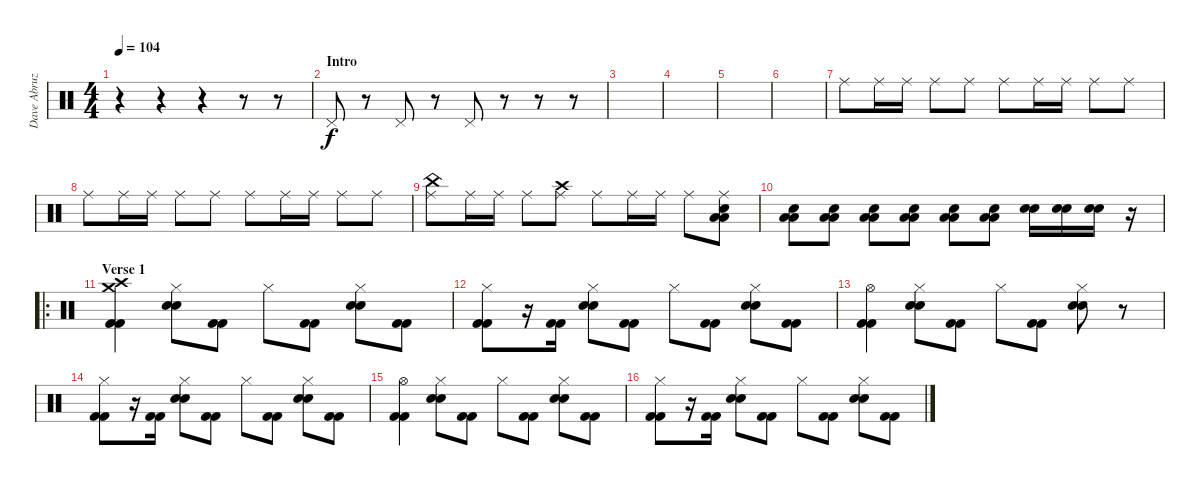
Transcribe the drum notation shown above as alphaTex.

\track ("Dave Abruzzese" "Dave Abruz") {instrument percussion}
\staff {score}
\articulation defaults
\ts (4 4)
\tempo 104
\clef neutral
\ks c
r.4{dy f} r.4 r.4 r.8 r.8 |
\section ("" "Intro")
"Pedal Hi-Hat (hit)".8 r.8 "Pedal Hi-Hat (hit)".8 r.8 "Pedal Hi-Hat (hit)".8 r.8 r.8 r.8 |
|
|
|
|
\section ("" "")
"Ride (middle)".8 "Ride (middle)".16 "Ride (middle)".16 "Ride (middle)".8 "Ride (middle)".8 "Ride (middle)".8 "Ride (middle)".16 "Ride (middle)".16 "Ride (middle)".8 "Ride (middle)".8 |
"Ride (middle)".8 "Ride (middle)".16 "Ride (middle)".16 "Ride (middle)".8 "Ride (middle)".8 "Ride (middle)".8 "Ride (middle)".16 "Ride (middle)".16 "Ride (middle)".8 "Ride (middle)".8 |
("China (hit)" "Ride (middle)").8 "Ride (middle)".16 "Ride (middle)".16 "Ride (middle)".8 ("Crash high (hit)" "Ride (middle)").8 "Ride (middle)".8 "Ride (middle)".16 "Ride (middle)".16 "Ride (middle)".8 ("Low Tom (hit)" "Low Tom (hit)" "Electric Snare (hit)" "Ride (middle)").8 |
("Low Tom (hit)" "Low Tom (hit)" "Electric Snare (hit)").8 ("Low Tom (hit)" "Low Tom (hit)" "Electric Snare (hit)").8 ("Low Tom (hit)" "Low Tom (hit)" "Electric Snare (hit)").8 ("Low Tom (hit)" "Low Tom (hit)" "Electric Snare (hit)").8 ("Low Tom (hit)" "Low Tom (hit)" "Electric Snare (hit)").8 ("Low Tom (hit)" "Low Tom (hit)" "Electric Snare (hit)").8 ("Electric Snare (hit)" "Electric Snare (hit)").16 ("Electric Snare (hit)" "Electric Snare (hit)").16 ("Electric Snare (hit)" "Electric Snare (hit)").16 r.16 |
\ro
\section ("" "Verse 1")
("Crash medium (hit)" "Kick (hit) 2" "Kick (hit) 2" "Crash high (hit)").4 ("Electric Snare (hit)" "Electric Snare (hit)" "Hi-Hat (closed)").8 ("Kick (hit) 2" "Kick (hit) 2").8 "Hi-Hat (closed)".8 ("Kick (hit) 2" "Kick (hit) 2").8 ("Electric Snare (hit)" "Electric Snare (hit)" "Hi-Hat (closed)").8 ("Kick (hit) 2" "Kick (hit) 2").8 |
("Kick (hit) 2" "Kick (hit) 2" "Hi-Hat (closed)").8 r.16 ("Kick (hit) 2" "Kick (hit) 2").16 ("Electric Snare (hit)" "Electric Snare (hit)" "Hi-Hat (closed)").8 ("Kick (hit) 2" "Kick (hit) 2").8 "Hi-Hat (closed)".8 ("Kick (hit) 2" "Kick (hit) 2").8 ("Electric Snare (hit)" "Electric Snare (hit)" "Hi-Hat (closed)").8 ("Kick (hit) 2" "Kick (hit) 2").8 |
("Kick (hit) 2" "Kick (hit) 2" "Hi-Hat (open)").4 ("Electric Snare (hit)" "Electric Snare (hit)" "Hi-Hat (closed)").8 ("Kick (hit) 2" "Kick (hit) 2").8 "Hi-Hat (closed)".8 ("Kick (hit) 2" "Kick (hit) 2").8 ("Electric Snare (hit)" "Electric Snare (hit)" "Hi-Hat (closed)").8 r.8 |
("Kick (hit) 2" "Kick (hit) 2" "Hi-Hat (closed)").8 r.16 ("Kick (hit) 2" "Kick (hit) 2").16 ("Electric Snare (hit)" "Electric Snare (hit)" "Hi-Hat (closed)").8 ("Kick (hit) 2" "Kick (hit) 2").8 "Hi-Hat (closed)".8 ("Kick (hit) 2" "Kick (hit) 2").8 ("Electric Snare (hit)" "Electric Snare (hit)" "Hi-Hat (closed)").8 ("Kick (hit) 2" "Kick (hit) 2").8 |
("Kick (hit) 2" "Kick (hit) 2" "Hi-Hat (open)").4 ("Electric Snare (hit)" "Electric Snare (hit)" "Hi-Hat (closed)").8 ("Kick (hit) 2" "Kick (hit) 2").8 "Hi-Hat (closed)".8 ("Kick (hit) 2" "Kick (hit) 2").8 ("Electric Snare (hit)" "Electric Snare (hit)" "Hi-Hat (closed)").8 ("Kick (hit) 2" "Kick (hit) 2").8 |
("Kick (hit) 2" "Kick (hit) 2" "Hi-Hat (closed)").8 r.16 ("Kick (hit) 2" "Kick (hit) 2").16 ("Electric Snare (hit)" "Electric Snare (hit)" "Hi-Hat (closed)").8 ("Kick (hit) 2" "Kick (hit) 2").8 "Hi-Hat (closed)".8 ("Kick (hit) 2" "Kick (hit) 2").8 ("Electric Snare (hit)" "Electric Snare (hit)" "Hi-Hat (closed)").8 ("Kick (hit) 2" "Kick (hit) 2").8
